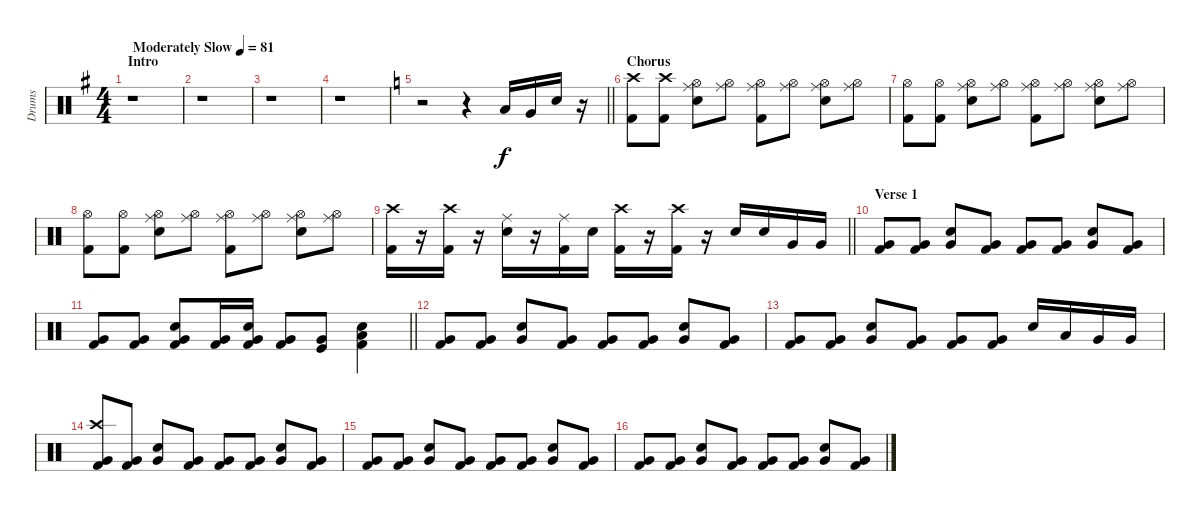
\track ("Drums" "Drums") {instrument percussion}
\staff {score}
\articulation defaults
\ts (4 4)
\section ("" "Intro")
\tempo (81 "Moderately Slow")
\clef neutral
\ks g
r.1{dy f} |
r.1 |
r.1 |
r.1 |
\barLineRight lightlight
\ks c
r.2 r.4 "Low Tom (hit)".16 "Very Low Tom (hit)".16 "Snare (hit) 2".16 r.16 |
\section ("" "Chorus")
("Crash high (hit)" "Kick (hit) 2").8 ("Crash high (hit)" "Kick (hit) 2").8 ("Ride (middle)" "Snare (hit) 2" "Hi-Hat (open)").8 ("Ride (middle)" "Hi-Hat (open)").8 ("Ride (middle)" "Kick (hit) 2" "Hi-Hat (open)").8 ("Ride (middle)" "Hi-Hat (open)").8 ("Ride (middle)" "Snare (hit) 2" "Hi-Hat (open)").8 ("Ride (middle)" "Hi-Hat (open)").8 |
("Kick (hit) 2" "Hi-Hat (open)").8 ("Kick (hit) 2" "Hi-Hat (open)").8 ("Ride (middle)" "Snare (hit) 2" "Hi-Hat (open)").8 ("Ride (middle)" "Hi-Hat (open)").8 ("Ride (middle)" "Kick (hit) 2" "Hi-Hat (open)").8 ("Ride (middle)" "Hi-Hat (open)").8 ("Ride (middle)" "Snare (hit) 2" "Hi-Hat (open)").8 ("Ride (middle)" "Hi-Hat (open)").8 |
("Kick (hit) 2" "Hi-Hat (open)").8 ("Kick (hit) 2" "Hi-Hat (open)").8 ("Ride (middle)" "Snare (hit) 2" "Hi-Hat (open)").8 ("Ride (middle)" "Hi-Hat (open)").8 ("Ride (middle)" "Kick (hit) 2" "Hi-Hat (open)").8 ("Ride (middle)" "Hi-Hat (open)").8 ("Ride (middle)" "Snare (hit) 2" "Hi-Hat (open)").8 ("Ride (middle)" "Hi-Hat (open)").8 |
\barLineRight lightlight
("Crash high (hit)" "Kick (hit) 2").16 r.16 ("Crash high (hit)" "Kick (hit) 2").16 r.16 ("Ride (middle)" "Snare (hit) 2").16 r.16 ("Ride (middle)" "Kick (hit) 2").16 "Snare (hit) 2".16 ("Crash high (hit)" "Kick (hit) 2").16 r.16 ("Crash high (hit)" "Kick (hit) 2").16 r.16 "Snare (hit) 2".16 "Snare (hit) 2".16 "Very Low Tom (hit)".16 "Very Low Tom (hit)".16 |
\section ("" "Verse 1")
("Kick (hit) 2" "Very Low Tom (hit)").8{volume 4} ("Very Low Tom (hit)" "Kick (hit) 2").8 ("Snare (hit) 2" "Very Low Tom (hit)").8 ("Very Low Tom (hit)" "Kick (hit) 2").8 ("Very Low Tom (hit)" "Kick (hit) 2").8 ("Very Low Tom (hit)" "Kick (hit) 2").8 ("Very Low Tom (hit)" "Snare (hit) 2").8 ("Kick (hit) 2" "Very Low Tom (hit)").8 |
\barLineRight lightlight
("Very Low Tom (hit)" "Kick (hit) 2").8 ("Very Low Tom (hit)" "Kick (hit) 2").8 ("Very Low Tom (hit)" "Kick (hit) 2" "Snare (hit) 2").8 ("Very Low Tom (hit)" "Kick (hit) 2").16 ("Very Low Tom (hit)" "Kick (hit) 2" "Snare (hit) 2").16 ("Very Low Tom (hit)" "Kick (hit) 2").8 ("Very Low Tom (hit)" "Kick (hit)").8 ("Low Floor Tom (hit)" "Kick (hit) 2" "Snare (hit) 2").4 |
("Kick (hit) 2" "Very Low Tom (hit)").8 ("Very Low Tom (hit)" "Kick (hit) 2").8 ("Snare (hit) 2" "Very Low Tom (hit)").8 ("Very Low Tom (hit)" "Kick (hit) 2").8 ("Very Low Tom (hit)" "Kick (hit) 2").8 ("Very Low Tom (hit)" "Kick (hit) 2").8 ("Very Low Tom (hit)" "Snare (hit) 2").8 ("Kick (hit) 2" "Very Low Tom (hit)").8 |
("Kick (hit) 2" "Very Low Tom (hit)").8 ("Very Low Tom (hit)" "Kick (hit) 2").8 ("Snare (hit) 2" "Very Low Tom (hit)").8 ("Very Low Tom (hit)" "Kick (hit) 2").8 ("Very Low Tom (hit)" "Kick (hit) 2").8 ("Very Low Tom (hit)" "Kick (hit) 2").8 "Snare (hit) 2".16 "Low Tom (hit)".16 "Very Low Tom (hit)".16 "Very Low Tom (hit)".16 |
("Kick (hit) 2" "Very Low Tom (hit)" "Crash high (hit)").8 ("Very Low Tom (hit)" "Kick (hit) 2").8 ("Snare (hit) 2" "Very Low Tom (hit)").8 ("Very Low Tom (hit)" "Kick (hit) 2").8 ("Very Low Tom (hit)" "Kick (hit) 2").8 ("Very Low Tom (hit)" "Kick (hit) 2").8 ("Very Low Tom (hit)" "Snare (hit) 2").8 ("Kick (hit) 2" "Very Low Tom (hit)").8 |
("Kick (hit) 2" "Very Low Tom (hit)").8 ("Very Low Tom (hit)" "Kick (hit) 2").8 ("Snare (hit) 2" "Very Low Tom (hit)").8 ("Very Low Tom (hit)" "Kick (hit) 2").8 ("Very Low Tom (hit)" "Kick (hit) 2").8 ("Very Low Tom (hit)" "Kick (hit) 2").8 ("Very Low Tom (hit)" "Snare (hit) 2").8 ("Kick (hit) 2" "Very Low Tom (hit)").8 |
("Kick (hit) 2" "Very Low Tom (hit)").8 ("Very Low Tom (hit)" "Kick (hit) 2").8 ("Snare (hit) 2" "Very Low Tom (hit)").8 ("Very Low Tom (hit)" "Kick (hit) 2").8 ("Very Low Tom (hit)" "Kick (hit) 2").8 ("Very Low Tom (hit)" "Kick (hit) 2").8 ("Very Low Tom (hit)" "Snare (hit) 2").8 ("Kick (hit) 2" "Very Low Tom (hit)").8
